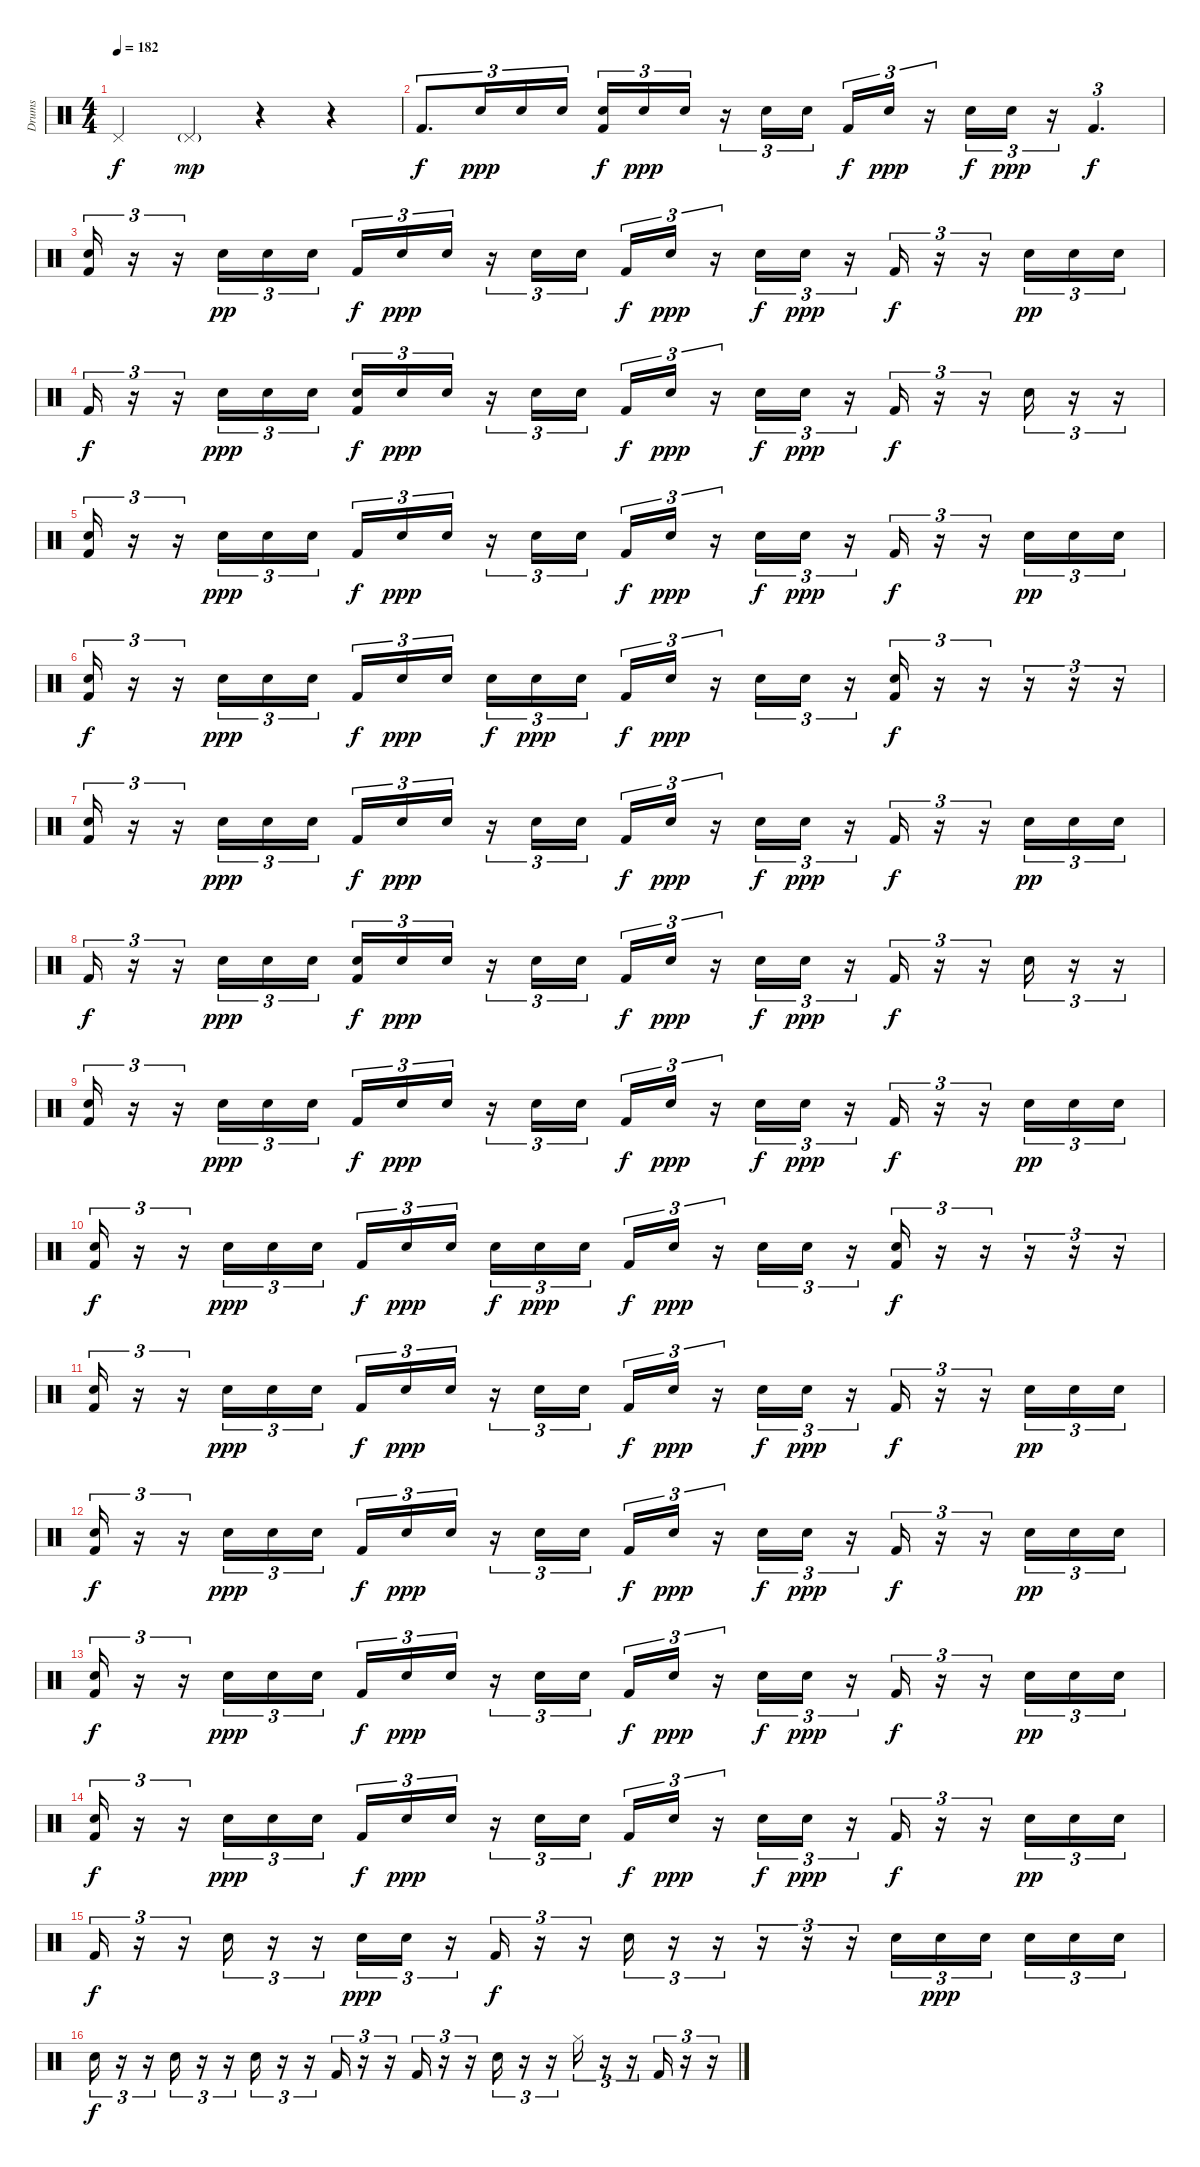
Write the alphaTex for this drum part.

\track ("Drums" "Drums") {instrument percussion}
\staff {score}
\articulation defaults
\ts (4 4)
\tempo 182
\clef neutral
\ks c "Pedal Hi-Hat (hit)".4{dy f} "Pedal Hi-Hat (hit)"{g}.4{dy mp}
r.4 r.4 |
"Kick (hit) 2".8{d tu (3 2) dy f} "Electric Snare (hit)".16{tu (3 2) dy ppp} "Electric Snare (hit)".16{tu (3 2)} "Electric Snare (hit)".16{tu (3 2)} ("Kick (hit) 2" "Electric Snare (hit)").16{tu (3 2) dy f} "Electric Snare (hit)".16{tu (3 2) dy ppp} "Electric Snare (hit)".16{tu (3 2)} r.16{tu (3 2)} "Electric Snare (hit)".16{tu (3 2)} "Electric Snare (hit)".16{tu (3 2)} "Kick (hit) 2".16{tu (3 2) dy f} "Electric Snare (hit)".16{tu (3 2) dy ppp} r.16{tu (3 2)} "Electric Snare (hit)".16{tu (3 2) dy f} "Electric Snare (hit)".16{tu (3 2) dy ppp} r.16{tu (3 2)} "Kick (hit) 2".4{d tu (3 2) dy f} |
("Kick (hit) 2" "Electric Snare (hit)").16{tu (3 2)} r.16{tu (3 2)} r.16{tu (3 2)} "Electric Snare (hit)".16{tu (3 2) dy pp} "Electric Snare (hit)".16{tu (3 2)} "Electric Snare (hit)".16{tu (3 2)} "Kick (hit) 2".16{tu (3 2) dy f} "Electric Snare (hit)".16{tu (3 2) dy ppp} "Electric Snare (hit)".16{tu (3 2)} r.16{tu (3 2)} "Electric Snare (hit)".16{tu (3 2)} "Electric Snare (hit)".16{tu (3 2)} "Kick (hit) 2".16{tu (3 2) dy f} "Electric Snare (hit)".16{tu (3 2) dy ppp} r.16{tu (3 2)} "Electric Snare (hit)".16{tu (3 2) dy f} "Electric Snare (hit)".16{tu (3 2) dy ppp} r.16{tu (3 2)} "Kick (hit) 2".16{tu (3 2) dy f} r.16{tu (3 2)} r.16{tu (3 2)} "Electric Snare (hit)".16{tu (3 2) dy pp} "Electric Snare (hit)".16{tu (3 2)} "Electric Snare (hit)".16{tu (3 2)} |
"Kick (hit) 2".16{tu (3 2) dy f} r.16{tu (3 2)} r.16{tu (3 2)} "Electric Snare (hit)".16{tu (3 2) dy ppp} "Electric Snare (hit)".16{tu (3 2)} "Electric Snare (hit)".16{tu (3 2)} ("Kick (hit) 2" "Electric Snare (hit)").16{tu (3 2) dy f} "Electric Snare (hit)".16{tu (3 2) dy ppp} "Electric Snare (hit)".16{tu (3 2)} r.16{tu (3 2)} "Electric Snare (hit)".16{tu (3 2)} "Electric Snare (hit)".16{tu (3 2)} "Kick (hit) 2".16{tu (3 2) dy f} "Electric Snare (hit)".16{tu (3 2) dy ppp} r.16{tu (3 2)} "Electric Snare (hit)".16{tu (3 2) dy f} "Electric Snare (hit)".16{tu (3 2) dy ppp} r.16{tu (3 2)} "Kick (hit) 2".16{tu (3 2) dy f} r.16{tu (3 2)} r.16{tu (3 2)} "Snare (hit)".16{tu (3 2)} r.16{tu (3 2)} r.16{tu (3 2)} |
("Kick (hit) 2" "Electric Snare (hit)").16{tu (3 2)} r.16{tu (3 2)} r.16{tu (3 2)} "Electric Snare (hit)".16{tu (3 2) dy ppp} "Electric Snare (hit)".16{tu (3 2)} "Electric Snare (hit)".16{tu (3 2)} "Kick (hit) 2".16{tu (3 2) dy f} "Electric Snare (hit)".16{tu (3 2) dy ppp} "Electric Snare (hit)".16{tu (3 2)} r.16{tu (3 2)} "Electric Snare (hit)".16{tu (3 2)} "Electric Snare (hit)".16{tu (3 2)} "Kick (hit) 2".16{tu (3 2) dy f} "Electric Snare (hit)".16{tu (3 2) dy ppp} r.16{tu (3 2)} "Electric Snare (hit)".16{tu (3 2) dy f} "Electric Snare (hit)".16{tu (3 2) dy ppp} r.16{tu (3 2)} "Kick (hit) 2".16{tu (3 2) dy f} r.16{tu (3 2)} r.16{tu (3 2)} "Electric Snare (hit)".16{tu (3 2) dy pp} "Electric Snare (hit)".16{tu (3 2)} "Electric Snare (hit)".16{tu (3 2)} |
("Kick (hit) 2" "Electric Snare (hit)").16{tu (3 2) dy f} r.16{tu (3 2)} r.16{tu (3 2)} "Electric Snare (hit)".16{tu (3 2) dy ppp} "Electric Snare (hit)".16{tu (3 2)} "Electric Snare (hit)".16{tu (3 2)} "Kick (hit) 2".16{tu (3 2) dy f} "Electric Snare (hit)".16{tu (3 2) dy ppp} "Electric Snare (hit)".16{tu (3 2) beam splitsecondary} "Electric Snare (hit)".16{tu (3 2) dy f} "Electric Snare (hit)".16{tu (3 2) dy ppp} "Electric Snare (hit)".16{tu (3 2)} "Kick (hit) 2".16{tu (3 2) dy f} "Electric Snare (hit)".16{tu (3 2) dy ppp} r.16{tu (3 2)} "Electric Snare (hit)".16{tu (3 2)} "Electric Snare (hit)".16{tu (3 2)} r.16{tu (3 2)} ("Kick (hit) 2" "Electric Snare (hit)").16{tu (3 2) dy f} r.16{tu (3 2)} r.16{tu (3 2)} r.16{tu (3 2)} r.16{tu (3 2)} r.16{tu (3 2)} |
("Kick (hit) 2" "Electric Snare (hit)").16{tu (3 2)} r.16{tu (3 2)} r.16{tu (3 2)} "Electric Snare (hit)".16{tu (3 2) dy ppp} "Electric Snare (hit)".16{tu (3 2)} "Electric Snare (hit)".16{tu (3 2)} "Kick (hit) 2".16{tu (3 2) dy f} "Electric Snare (hit)".16{tu (3 2) dy ppp} "Electric Snare (hit)".16{tu (3 2)} r.16{tu (3 2)} "Electric Snare (hit)".16{tu (3 2)} "Electric Snare (hit)".16{tu (3 2)} "Kick (hit) 2".16{tu (3 2) dy f} "Electric Snare (hit)".16{tu (3 2) dy ppp} r.16{tu (3 2)} "Electric Snare (hit)".16{tu (3 2) dy f} "Electric Snare (hit)".16{tu (3 2) dy ppp} r.16{tu (3 2)} "Kick (hit) 2".16{tu (3 2) dy f} r.16{tu (3 2)} r.16{tu (3 2)} "Electric Snare (hit)".16{tu (3 2) dy pp} "Electric Snare (hit)".16{tu (3 2)} "Electric Snare (hit)".16{tu (3 2)} |
"Kick (hit) 2".16{tu (3 2) dy f} r.16{tu (3 2)} r.16{tu (3 2)} "Electric Snare (hit)".16{tu (3 2) dy ppp} "Electric Snare (hit)".16{tu (3 2)} "Electric Snare (hit)".16{tu (3 2)} ("Kick (hit) 2" "Electric Snare (hit)").16{tu (3 2) dy f} "Electric Snare (hit)".16{tu (3 2) dy ppp} "Electric Snare (hit)".16{tu (3 2)} r.16{tu (3 2)} "Electric Snare (hit)".16{tu (3 2)} "Electric Snare (hit)".16{tu (3 2)} "Kick (hit) 2".16{tu (3 2) dy f} "Electric Snare (hit)".16{tu (3 2) dy ppp} r.16{tu (3 2)} "Electric Snare (hit)".16{tu (3 2) dy f} "Electric Snare (hit)".16{tu (3 2) dy ppp} r.16{tu (3 2)} "Kick (hit) 2".16{tu (3 2) dy f} r.16{tu (3 2)} r.16{tu (3 2)} "Snare (hit)".16{tu (3 2)} r.16{tu (3 2)} r.16{tu (3 2)} |
("Kick (hit) 2" "Electric Snare (hit)").16{tu (3 2)} r.16{tu (3 2)} r.16{tu (3 2)} "Electric Snare (hit)".16{tu (3 2) dy ppp} "Electric Snare (hit)".16{tu (3 2)} "Electric Snare (hit)".16{tu (3 2)} "Kick (hit) 2".16{tu (3 2) dy f} "Electric Snare (hit)".16{tu (3 2) dy ppp} "Electric Snare (hit)".16{tu (3 2)} r.16{tu (3 2)} "Electric Snare (hit)".16{tu (3 2)} "Electric Snare (hit)".16{tu (3 2)} "Kick (hit) 2".16{tu (3 2) dy f} "Electric Snare (hit)".16{tu (3 2) dy ppp} r.16{tu (3 2)} "Electric Snare (hit)".16{tu (3 2) dy f} "Electric Snare (hit)".16{tu (3 2) dy ppp} r.16{tu (3 2)} "Kick (hit) 2".16{tu (3 2) dy f} r.16{tu (3 2)} r.16{tu (3 2)} "Electric Snare (hit)".16{tu (3 2) dy pp} "Electric Snare (hit)".16{tu (3 2)} "Electric Snare (hit)".16{tu (3 2)} |
("Kick (hit) 2" "Electric Snare (hit)").16{tu (3 2) dy f} r.16{tu (3 2)} r.16{tu (3 2)} "Electric Snare (hit)".16{tu (3 2) dy ppp} "Electric Snare (hit)".16{tu (3 2)} "Electric Snare (hit)".16{tu (3 2)} "Kick (hit) 2".16{tu (3 2) dy f} "Electric Snare (hit)".16{tu (3 2) dy ppp} "Electric Snare (hit)".16{tu (3 2) beam splitsecondary} "Electric Snare (hit)".16{tu (3 2) dy f} "Electric Snare (hit)".16{tu (3 2) dy ppp} "Electric Snare (hit)".16{tu (3 2)} "Kick (hit) 2".16{tu (3 2) dy f} "Electric Snare (hit)".16{tu (3 2) dy ppp} r.16{tu (3 2)} "Electric Snare (hit)".16{tu (3 2)} "Electric Snare (hit)".16{tu (3 2)} r.16{tu (3 2)} ("Kick (hit) 2" "Electric Snare (hit)").16{tu (3 2) dy f} r.16{tu (3 2)} r.16{tu (3 2)} r.16{tu (3 2)} r.16{tu (3 2)} r.16{tu (3 2)} |
("Kick (hit) 2" "Electric Snare (hit)").16{tu (3 2)} r.16{tu (3 2)} r.16{tu (3 2)} "Electric Snare (hit)".16{tu (3 2) dy ppp} "Electric Snare (hit)".16{tu (3 2)} "Electric Snare (hit)".16{tu (3 2)} "Kick (hit) 2".16{tu (3 2) dy f} "Electric Snare (hit)".16{tu (3 2) dy ppp} "Electric Snare (hit)".16{tu (3 2)} r.16{tu (3 2)} "Electric Snare (hit)".16{tu (3 2)} "Electric Snare (hit)".16{tu (3 2)} "Kick (hit) 2".16{tu (3 2) dy f} "Electric Snare (hit)".16{tu (3 2) dy ppp} r.16{tu (3 2)} "Electric Snare (hit)".16{tu (3 2) dy f} "Electric Snare (hit)".16{tu (3 2) dy ppp} r.16{tu (3 2)} "Kick (hit) 2".16{tu (3 2) dy f} r.16{tu (3 2)} r.16{tu (3 2)} "Electric Snare (hit)".16{tu (3 2) dy pp} "Electric Snare (hit)".16{tu (3 2)} "Electric Snare (hit)".16{tu (3 2)} |
("Kick (hit) 2" "Electric Snare (hit)").16{tu (3 2) dy f} r.16{tu (3 2)} r.16{tu (3 2)} "Electric Snare (hit)".16{tu (3 2) dy ppp} "Electric Snare (hit)".16{tu (3 2)} "Electric Snare (hit)".16{tu (3 2)} "Kick (hit) 2".16{tu (3 2) dy f} "Electric Snare (hit)".16{tu (3 2) dy ppp} "Electric Snare (hit)".16{tu (3 2)} r.16{tu (3 2)} "Electric Snare (hit)".16{tu (3 2)} "Electric Snare (hit)".16{tu (3 2)} "Kick (hit) 2".16{tu (3 2) dy f} "Electric Snare (hit)".16{tu (3 2) dy ppp} r.16{tu (3 2)} "Electric Snare (hit)".16{tu (3 2) dy f} "Electric Snare (hit)".16{tu (3 2) dy ppp} r.16{tu (3 2)} "Kick (hit) 2".16{tu (3 2) dy f} r.16{tu (3 2)} r.16{tu (3 2)} "Electric Snare (hit)".16{tu (3 2) dy pp} "Electric Snare (hit)".16{tu (3 2)} "Electric Snare (hit)".16{tu (3 2)} |
("Kick (hit) 2" "Electric Snare (hit)").16{tu (3 2) dy f} r.16{tu (3 2)} r.16{tu (3 2)} "Electric Snare (hit)".16{tu (3 2) dy ppp} "Electric Snare (hit)".16{tu (3 2)} "Electric Snare (hit)".16{tu (3 2)} "Kick (hit) 2".16{tu (3 2) dy f} "Electric Snare (hit)".16{tu (3 2) dy ppp} "Electric Snare (hit)".16{tu (3 2)} r.16{tu (3 2)} "Electric Snare (hit)".16{tu (3 2)} "Electric Snare (hit)".16{tu (3 2)} "Kick (hit) 2".16{tu (3 2) dy f} "Electric Snare (hit)".16{tu (3 2) dy ppp} r.16{tu (3 2)} "Electric Snare (hit)".16{tu (3 2) dy f} "Electric Snare (hit)".16{tu (3 2) dy ppp} r.16{tu (3 2)} "Kick (hit) 2".16{tu (3 2) dy f} r.16{tu (3 2)} r.16{tu (3 2)} "Electric Snare (hit)".16{tu (3 2) dy pp} "Electric Snare (hit)".16{tu (3 2)} "Electric Snare (hit)".16{tu (3 2)} |
("Kick (hit) 2" "Electric Snare (hit)").16{tu (3 2) dy f} r.16{tu (3 2)} r.16{tu (3 2)} "Electric Snare (hit)".16{tu (3 2) dy ppp} "Electric Snare (hit)".16{tu (3 2)} "Electric Snare (hit)".16{tu (3 2)} "Kick (hit) 2".16{tu (3 2) dy f} "Electric Snare (hit)".16{tu (3 2) dy ppp} "Electric Snare (hit)".16{tu (3 2)} r.16{tu (3 2)} "Electric Snare (hit)".16{tu (3 2)} "Electric Snare (hit)".16{tu (3 2)} "Kick (hit) 2".16{tu (3 2) dy f} "Electric Snare (hit)".16{tu (3 2) dy ppp} r.16{tu (3 2)} "Electric Snare (hit)".16{tu (3 2) dy f} "Electric Snare (hit)".16{tu (3 2) dy ppp} r.16{tu (3 2)} "Kick (hit) 2".16{tu (3 2) dy f} r.16{tu (3 2)} r.16{tu (3 2)} "Electric Snare (hit)".16{tu (3 2) dy pp} "Electric Snare (hit)".16{tu (3 2)} "Electric Snare (hit)".16{tu (3 2)} |
"Kick (hit) 2".16{tu (3 2) dy f} r.16{tu (3 2)} r.16{tu (3 2)} "Electric Snare (hit)".16{tu (3 2)} r.16{tu (3 2)} r.16{tu (3 2)} "Electric Snare (hit)".16{tu (3 2) dy ppp} "Electric Snare (hit)".16{tu (3 2)} r.16{tu (3 2)} "Kick (hit) 2".16{tu (3 2) dy f} r.16{tu (3 2)} r.16{tu (3 2)} "Electric Snare (hit)".16{tu (3 2)} r.16{tu (3 2)} r.16{tu (3 2)} r.16{tu (3 2)} r.16{tu (3 2)} r.16{tu (3 2)} "Electric Snare (hit)".16{tu (3 2)} "Electric Snare (hit)".16{tu (3 2) dy ppp} "Electric Snare (hit)".16{tu (3 2) beam splitsecondary} "Electric Snare (hit)".16{tu (3 2)} "Electric Snare (hit)".16{tu (3 2)} "Electric Snare (hit)".16{tu (3 2)} |
"Electric Snare (hit)".16{tu (3 2) dy f} r.16{tu (3 2)} r.16{tu (3 2)} "Electric Snare (hit)".16{tu (3 2)} r.16{tu (3 2)} r.16{tu (3 2)} "Electric Snare (hit)".16{tu (3 2)} r.16{tu (3 2)} r.16{tu (3 2)} "Kick (hit) 2".16{tu (3 2)} r.16{tu (3 2)} r.16{tu (3 2)} "Kick (hit) 2".16{tu (3 2)} r.16{tu (3 2)} r.16{tu (3 2)} "Electric Snare (hit)".16{tu (3 2)} r.16{tu (3 2)} r.16{tu (3 2)} "Hi-Hat (closed)".16{tu (3 2)} r.16{tu (3 2)} r.16{tu (3 2)} "Kick (hit) 2".16{tu (3 2)} r.16{tu (3 2)} r.16{tu (3 2)}
